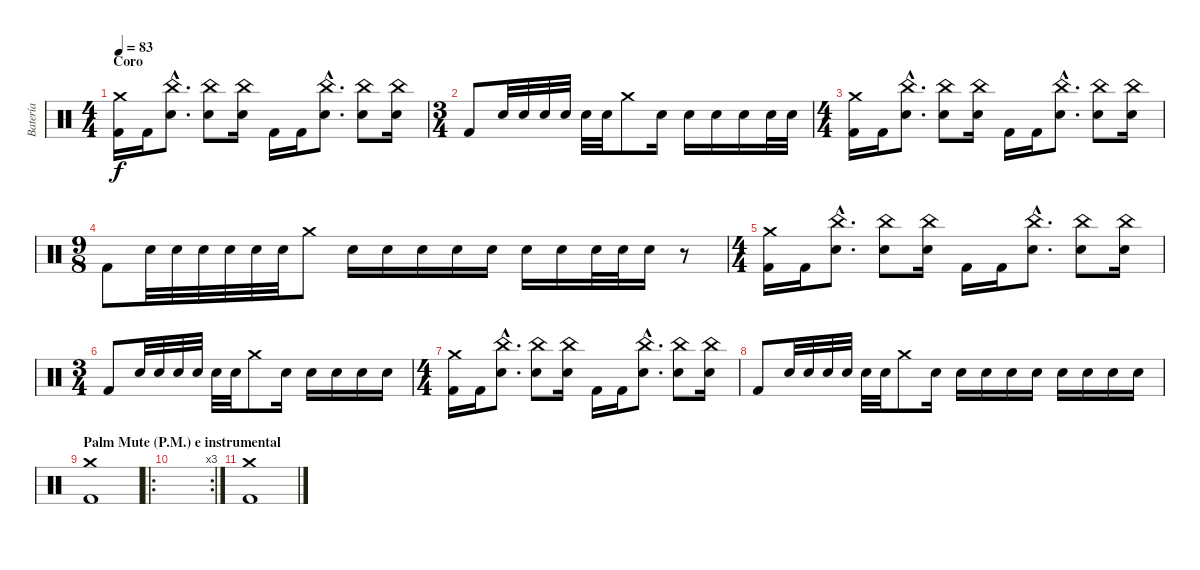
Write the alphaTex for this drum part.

\track ("Batería" "Batería") {instrument percussion}
\staff {score}
\articulation defaults
\ts (4 4)
\section ("" "Coro")
\tempo 83
\clef neutral
\ks c
("Crash medium (hit)" "Kick (hit) 2").16{dy f} "Kick (hit) 2".16 ("China (hit)"{hac} "Electric Snare (hit)"{hac}).8{d} ("China (hit)" "Electric Snare (hit)").8 ("China (hit)" "Electric Snare (hit)").16 "Kick (hit) 2".16 "Kick (hit) 2".16 ("China (hit)"{hac} "Electric Snare (hit)"{hac}).8{d} ("China (hit)" "Electric Snare (hit)").8 ("China (hit)" "Electric Snare (hit)").16 |
\ts (3 4)
"Kick (hit) 2".8 "Electric Snare (hit)".32 "Electric Snare (hit)".32 "Electric Snare (hit)".32 "Electric Snare (hit)".32 "Electric Snare (hit)".32 "Electric Snare (hit)".32 "Crash medium (hit)".8 "Electric Snare (hit)".16 "Electric Snare (hit)".16 "Electric Snare (hit)".16 "Electric Snare (hit)".16 "Electric Snare (hit)".32 "Electric Snare (hit)".32 |
\ts (4 4)
("Crash medium (hit)" "Kick (hit) 2").16 "Kick (hit) 2".16 ("China (hit)"{hac} "Electric Snare (hit)"{hac}).8{d} ("China (hit)" "Electric Snare (hit)").8 ("China (hit)" "Electric Snare (hit)").16 "Kick (hit) 2".16 "Kick (hit) 2".16 ("China (hit)"{hac} "Electric Snare (hit)"{hac}).8{d} ("China (hit)" "Electric Snare (hit)").8 ("China (hit)" "Electric Snare (hit)").16 |
\ts (9 8)
"Kick (hit) 2".8 "Electric Snare (hit)".32 "Electric Snare (hit)".32 "Electric Snare (hit)".32 "Electric Snare (hit)".32 "Electric Snare (hit)".32 "Electric Snare (hit)".32 "Crash medium (hit)".8 "Electric Snare (hit)".16 "Electric Snare (hit)".16 "Electric Snare (hit)".16 "Electric Snare (hit)".16 "Electric Snare (hit)".16 "Electric Snare (hit)".16 "Electric Snare (hit)".16 "Electric Snare (hit)".32 "Electric Snare (hit)".32 "Electric Snare (hit)".16 r.8 |
\ts (4 4)
("Crash medium (hit)" "Kick (hit) 2").16 "Kick (hit) 2".16 ("China (hit)"{hac} "Electric Snare (hit)"{hac}).8{d} ("China (hit)" "Electric Snare (hit)").8 ("China (hit)" "Electric Snare (hit)").16 "Kick (hit) 2".16 "Kick (hit) 2".16 ("China (hit)"{hac} "Electric Snare (hit)"{hac}).8{d} ("China (hit)" "Electric Snare (hit)").8 ("China (hit)" "Electric Snare (hit)").16 |
\ts (3 4)
"Kick (hit) 2".8 "Electric Snare (hit)".32 "Electric Snare (hit)".32 "Electric Snare (hit)".32 "Electric Snare (hit)".32 "Electric Snare (hit)".32 "Electric Snare (hit)".32 "Crash medium (hit)".8 "Electric Snare (hit)".16 "Electric Snare (hit)".16 "Electric Snare (hit)".16 "Electric Snare (hit)".16 "Electric Snare (hit)".16 |
\ts (4 4)
("Crash medium (hit)" "Kick (hit) 2").16 "Kick (hit) 2".16 ("China (hit)"{hac} "Electric Snare (hit)"{hac}).8{d} ("China (hit)" "Electric Snare (hit)").8 ("China (hit)" "Electric Snare (hit)").16 "Kick (hit) 2".16 "Kick (hit) 2".16 ("China (hit)"{hac} "Electric Snare (hit)"{hac}).8{d} ("China (hit)" "Electric Snare (hit)").8 ("China (hit)" "Electric Snare (hit)").16 |
"Kick (hit) 2".8 "Electric Snare (hit)".32 "Electric Snare (hit)".32 "Electric Snare (hit)".32 "Electric Snare (hit)".32 "Electric Snare (hit)".32 "Electric Snare (hit)".32 "Crash medium (hit)".8 "Electric Snare (hit)".16 "Electric Snare (hit)".16 "Electric Snare (hit)".16 "Electric Snare (hit)".16 "Electric Snare (hit)".16 "Electric Snare (hit)".16 "Electric Snare (hit)".16 "Electric Snare (hit)".16 "Electric Snare (hit)".16 |
\section ("" "Palm Mute (P.M.) e instrumental")
("Kick (hit) 2" "Crash medium (hit)").1 |
\ro
\rc 3
|
("Kick (hit) 2" "Crash medium (hit)").1
